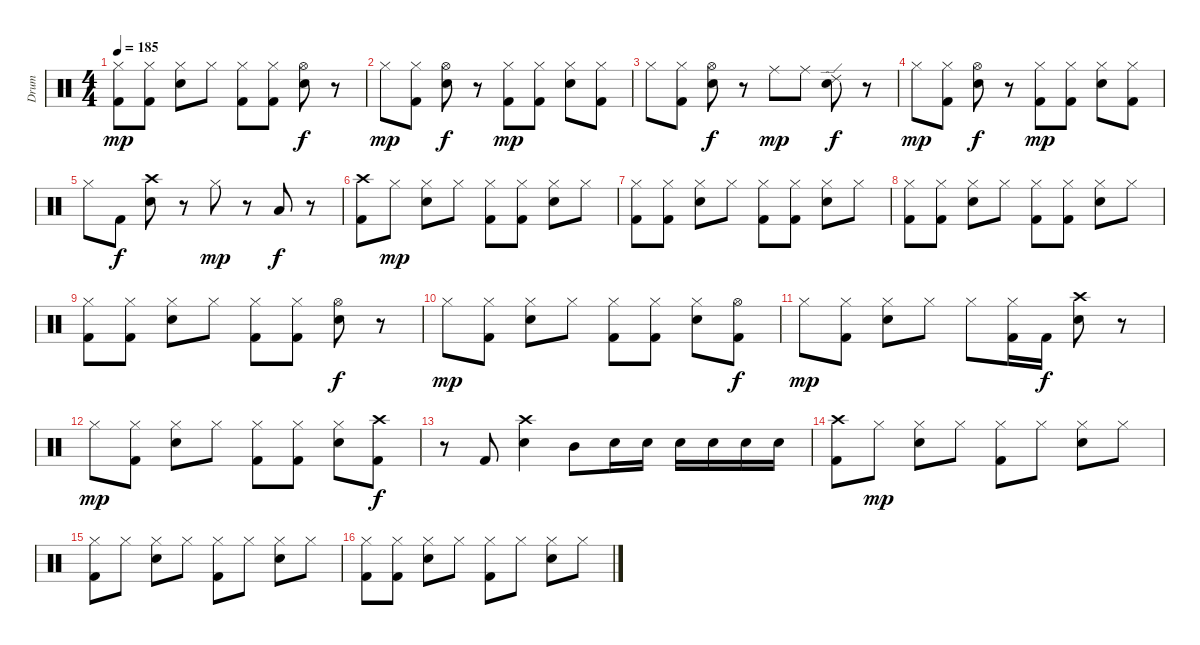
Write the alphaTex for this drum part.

\track ("Drum" "Drum") {instrument percussion}
\staff {score}
\articulation defaults
\ts (4 4)
\tempo 185
\clef neutral
\ks c
("Hi-Hat (closed)" "Kick (hit) 2").8{dy mp} ("Hi-Hat (closed)" "Kick (hit) 2").8 ("Hi-Hat (closed)" "Electric Snare (hit)").8 "Hi-Hat (closed)".8 ("Hi-Hat (closed)" "Kick (hit) 2").8 ("Hi-Hat (closed)" "Kick (hit) 2").8 ("Hi-Hat (open)" "Electric Snare (hit)").8{dy f} r.8 |
"Hi-Hat (closed)".8{dy mp} ("Hi-Hat (closed)" "Kick (hit) 2").8 ("Electric Snare (hit)" "Hi-Hat (open)").8{dy f} r.8 ("Hi-Hat (closed)" "Kick (hit) 2").8{dy mp} ("Hi-Hat (closed)" "Kick (hit) 2").8 ("Hi-Hat (closed)" "Electric Snare (hit)").8 ("Hi-Hat (closed)" "Kick (hit) 2").8 |
"Hi-Hat (closed)".8 ("Hi-Hat (closed)" "Kick (hit) 2").8 ("Electric Snare (hit)" "Hi-Hat (open)").8{dy f} r.8 "Ride (middle)".8{dy mp} "Ride (middle)".8 ("Ride (edge) 2" "Electric Snare (hit)").8{dy f} r.8 |
"Hi-Hat (closed)".8{dy mp} ("Hi-Hat (closed)" "Kick (hit) 2").8 ("Electric Snare (hit)" "Hi-Hat (open)").8{dy f} r.8 ("Hi-Hat (closed)" "Kick (hit) 2").8{dy mp} ("Hi-Hat (closed)" "Kick (hit) 2").8 ("Hi-Hat (closed)" "Electric Snare (hit)").8 ("Hi-Hat (closed)" "Kick (hit) 2").8 |
"Hi-Hat (closed)".8 "Kick (hit) 2".8{dy f} ("Crash high (hit)" "Electric Snare (hit)").8 r.8 "Hi-Hat (closed)".8{dy mp} r.8 "Low Tom (hit)".8{dy f} r.8 |
("Crash high (hit)" "Kick (hit) 2").8 "Hi-Hat (closed)".8{dy mp} ("Hi-Hat (closed)" "Electric Snare (hit)").8 "Hi-Hat (closed)".8 ("Hi-Hat (closed)" "Kick (hit) 2").8 ("Hi-Hat (closed)" "Kick (hit) 2").8 ("Hi-Hat (closed)" "Electric Snare (hit)").8 "Hi-Hat (closed)".8 |
("Hi-Hat (closed)" "Kick (hit) 2").8 ("Hi-Hat (closed)" "Kick (hit) 2").8 ("Hi-Hat (closed)" "Electric Snare (hit)").8 "Hi-Hat (closed)".8 ("Hi-Hat (closed)" "Kick (hit) 2").8 ("Hi-Hat (closed)" "Kick (hit) 2").8 ("Hi-Hat (closed)" "Electric Snare (hit)").8 "Hi-Hat (closed)".8 |
("Hi-Hat (closed)" "Kick (hit) 2").8 ("Hi-Hat (closed)" "Kick (hit) 2").8 ("Hi-Hat (closed)" "Electric Snare (hit)").8 "Hi-Hat (closed)".8 ("Hi-Hat (closed)" "Kick (hit) 2").8 ("Hi-Hat (closed)" "Kick (hit) 2").8 ("Hi-Hat (closed)" "Electric Snare (hit)").8 "Hi-Hat (closed)".8 |
("Hi-Hat (closed)" "Kick (hit) 2").8 ("Hi-Hat (closed)" "Kick (hit) 2").8 ("Hi-Hat (closed)" "Electric Snare (hit)").8 "Hi-Hat (closed)".8 ("Hi-Hat (closed)" "Kick (hit) 2").8 ("Hi-Hat (closed)" "Kick (hit) 2").8 ("Hi-Hat (open)" "Electric Snare (hit)").8{dy f} r.8 |
"Hi-Hat (closed)".8{dy mp} ("Hi-Hat (closed)" "Kick (hit) 2").8 ("Hi-Hat (closed)" "Electric Snare (hit)").8 "Hi-Hat (closed)".8 ("Hi-Hat (closed)" "Kick (hit) 2").8 ("Hi-Hat (closed)" "Kick (hit) 2").8 ("Hi-Hat (closed)" "Electric Snare (hit)").8 ("Kick (hit) 2" "Hi-Hat (open)").8{dy f} |
"Hi-Hat (closed)".8{dy mp} ("Hi-Hat (closed)" "Kick (hit) 2").8 ("Hi-Hat (closed)" "Electric Snare (hit)").8 "Hi-Hat (closed)".8 "Hi-Hat (closed)".8 ("Hi-Hat (closed)" "Kick (hit) 2").16 "Kick (hit) 2".16{dy f} ("Crash high (hit)" "Electric Snare (hit)").8 r.8 |
"Hi-Hat (closed)".8{dy mp} ("Hi-Hat (closed)" "Kick (hit) 2").8 ("Hi-Hat (closed)" "Electric Snare (hit)").8 "Hi-Hat (closed)".8 ("Hi-Hat (closed)" "Kick (hit) 2").8 ("Hi-Hat (closed)" "Kick (hit) 2").8 ("Hi-Hat (closed)" "Electric Snare (hit)").8 ("Kick (hit) 2" "Crash high (hit)").8{dy f} |
r.8 "Kick (hit) 2".8 ("Crash high (hit)" "Electric Snare (hit)").4 "Mid Tom (hit)".8 "Electric Snare (hit)".16 "Electric Snare (hit)".16 "Electric Snare (hit)".16 "Electric Snare (hit)".16 "Electric Snare (hit)".16 "Electric Snare (hit)".16 |
("Crash high (hit)" "Kick (hit) 2").8 "Hi-Hat (closed)".8{dy mp} ("Hi-Hat (closed)" "Electric Snare (hit)").8 "Hi-Hat (closed)".8 ("Hi-Hat (closed)" "Kick (hit) 2").8 "Hi-Hat (closed)".8 ("Hi-Hat (closed)" "Electric Snare (hit)").8 "Hi-Hat (closed)".8 |
("Kick (hit) 2" "Hi-Hat (closed)").8 "Hi-Hat (closed)".8 ("Hi-Hat (closed)" "Electric Snare (hit)").8 "Hi-Hat (closed)".8 ("Hi-Hat (closed)" "Kick (hit) 2").8 "Hi-Hat (closed)".8 ("Hi-Hat (closed)" "Electric Snare (hit)").8 "Hi-Hat (closed)".8 |
("Kick (hit) 2" "Hi-Hat (closed)").8 ("Hi-Hat (closed)" "Kick (hit) 2").8 ("Hi-Hat (closed)" "Electric Snare (hit)").8 "Hi-Hat (closed)".8 ("Hi-Hat (closed)" "Kick (hit) 2").8 "Hi-Hat (closed)".8 ("Hi-Hat (closed)" "Electric Snare (hit)").8 "Hi-Hat (closed)".8
